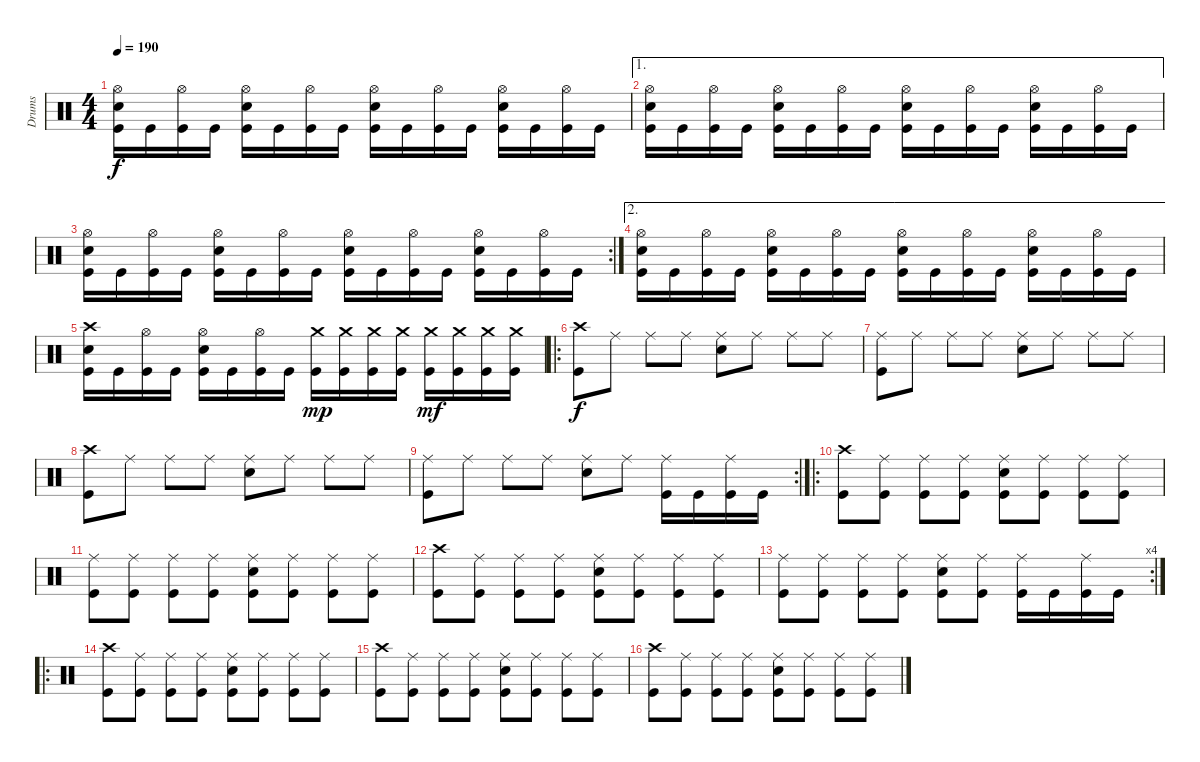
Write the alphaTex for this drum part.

\track ("Drums" "Drums") {instrument percussion}
\staff {score}
\articulation defaults
\ts (4 4)
\tempo 190
\clef neutral
\ks c
("Hi-Hat (open)" "Electric Snare (hit)" "Kick (hit)").16{dy f} "Kick (hit)".16 ("Hi-Hat (open)" "Kick (hit)").16 "Kick (hit)".16 ("Hi-Hat (open)" "Electric Snare (hit)" "Kick (hit)").16 "Kick (hit)".16 ("Hi-Hat (open)" "Kick (hit)").16 "Kick (hit)".16 ("Hi-Hat (open)" "Electric Snare (hit)" "Kick (hit)").16 "Kick (hit)".16 ("Hi-Hat (open)" "Kick (hit)").16 "Kick (hit)".16 ("Hi-Hat (open)" "Electric Snare (hit)" "Kick (hit)").16 "Kick (hit)".16 ("Hi-Hat (open)" "Kick (hit)").16 "Kick (hit)".16 |
\ae 1
("Hi-Hat (open)" "Electric Snare (hit)" "Kick (hit)").16 "Kick (hit)".16 ("Hi-Hat (open)" "Kick (hit)").16 "Kick (hit)".16 ("Hi-Hat (open)" "Electric Snare (hit)" "Kick (hit)").16 "Kick (hit)".16 ("Hi-Hat (open)" "Kick (hit)").16 "Kick (hit)".16 ("Hi-Hat (open)" "Electric Snare (hit)" "Kick (hit)").16 "Kick (hit)".16 ("Hi-Hat (open)" "Kick (hit)").16 "Kick (hit)".16 ("Hi-Hat (open)" "Electric Snare (hit)" "Kick (hit)").16 "Kick (hit)".16 ("Hi-Hat (open)" "Kick (hit)").16 "Kick (hit)".16 |
\rc 2
("Hi-Hat (open)" "Electric Snare (hit)" "Kick (hit)").16 "Kick (hit)".16 ("Hi-Hat (open)" "Kick (hit)").16 "Kick (hit)".16 ("Hi-Hat (open)" "Electric Snare (hit)" "Kick (hit)").16 "Kick (hit)".16 ("Hi-Hat (open)" "Kick (hit)").16 "Kick (hit)".16 ("Hi-Hat (open)" "Electric Snare (hit)" "Kick (hit)").16 "Kick (hit)".16 ("Hi-Hat (open)" "Kick (hit)").16 "Kick (hit)".16 ("Hi-Hat (open)" "Electric Snare (hit)" "Kick (hit)").16 "Kick (hit)".16 ("Hi-Hat (open)" "Kick (hit)").16 "Kick (hit)".16 |
\ae 2
("Hi-Hat (open)" "Electric Snare (hit)" "Kick (hit)").16 "Kick (hit)".16 ("Hi-Hat (open)" "Kick (hit)").16 "Kick (hit)".16 ("Hi-Hat (open)" "Electric Snare (hit)" "Kick (hit)").16 "Kick (hit)".16 ("Hi-Hat (open)" "Kick (hit)").16 "Kick (hit)".16 ("Hi-Hat (open)" "Electric Snare (hit)" "Kick (hit)").16 "Kick (hit)".16 ("Hi-Hat (open)" "Kick (hit)").16 "Kick (hit)".16 ("Hi-Hat (open)" "Electric Snare (hit)" "Kick (hit)").16 "Kick (hit)".16 ("Hi-Hat (open)" "Kick (hit)").16 "Kick (hit)".16 |
("Crash high (hit)" "Electric Snare (hit)" "Kick (hit)").16 "Kick (hit)".16 ("Hi-Hat (open)" "Kick (hit)").16 "Kick (hit)".16 ("Hi-Hat (open)" "Electric Snare (hit)" "Kick (hit)").16 "Kick (hit)".16 ("Hi-Hat (open)" "Kick (hit)").16 "Kick (hit)".16 ("Crash medium (hit)" "Kick (hit)").16{dy mp} ("Crash medium (hit)" "Kick (hit)").16 ("Crash medium (hit)" "Kick (hit)").16 ("Crash medium (hit)" "Kick (hit)").16 ("Crash medium (hit)" "Kick (hit)").16{dy mf} ("Crash medium (hit)" "Kick (hit)").16 ("Crash medium (hit)" "Kick (hit)").16 ("Crash medium (hit)" "Kick (hit)").16 |
\ro
("Crash high (hit)" "Kick (hit)").8{dy f} "Ride (middle)".8 "Ride (middle)".8 "Ride (middle)".8 ("Ride (middle)" "Electric Snare (hit)").8 "Ride (middle)".8 "Ride (middle)".8 "Ride (middle)".8 |
("Ride (middle)" "Kick (hit)").8 "Ride (middle)".8 "Ride (middle)".8 "Ride (middle)".8 ("Ride (middle)" "Electric Snare (hit)").8 "Ride (middle)".8 "Ride (middle)".8 "Ride (middle)".8 |
("Crash high (hit)" "Kick (hit)").8 "Ride (middle)".8 "Ride (middle)".8 "Ride (middle)".8 ("Ride (middle)" "Electric Snare (hit)").8 "Ride (middle)".8 "Ride (middle)".8 "Ride (middle)".8 |
\rc 2
("Ride (middle)" "Kick (hit)").8 "Ride (middle)".8 "Ride (middle)".8 "Ride (middle)".8 ("Ride (middle)" "Electric Snare (hit)").8 "Ride (middle)".8 ("Ride (middle)" "Kick (hit)").16 "Kick (hit)".16 ("Ride (middle)" "Kick (hit)").16 "Kick (hit)".16 |
\ro
("Crash high (hit)" "Kick (hit)").8 ("Ride (middle)" "Kick (hit)").8 ("Ride (middle)" "Kick (hit)").8 ("Ride (middle)" "Kick (hit)").8 ("Ride (middle)" "Electric Snare (hit)" "Kick (hit)").8 ("Ride (middle)" "Kick (hit)").8 ("Ride (middle)" "Kick (hit)").8 ("Ride (middle)" "Kick (hit)").8 |
("Ride (middle)" "Kick (hit)").8 ("Ride (middle)" "Kick (hit)").8 ("Ride (middle)" "Kick (hit)").8 ("Ride (middle)" "Kick (hit)").8 ("Ride (middle)" "Electric Snare (hit)" "Kick (hit)").8 ("Ride (middle)" "Kick (hit)").8 ("Ride (middle)" "Kick (hit)").8 ("Ride (middle)" "Kick (hit)").8 |
("Crash high (hit)" "Kick (hit)").8 ("Ride (middle)" "Kick (hit)").8 ("Ride (middle)" "Kick (hit)").8 ("Ride (middle)" "Kick (hit)").8 ("Ride (middle)" "Electric Snare (hit)" "Kick (hit)").8 ("Ride (middle)" "Kick (hit)").8 ("Ride (middle)" "Kick (hit)").8 ("Ride (middle)" "Kick (hit)").8 |
\rc 4
("Ride (middle)" "Kick (hit)").8 ("Ride (middle)" "Kick (hit)").8 ("Ride (middle)" "Kick (hit)").8 ("Ride (middle)" "Kick (hit)").8 ("Ride (middle)" "Electric Snare (hit)" "Kick (hit)").8 ("Ride (middle)" "Kick (hit)").8 ("Ride (middle)" "Kick (hit)").16 "Kick (hit)".16 ("Ride (middle)" "Kick (hit)").16 "Kick (hit)".16 |
\ro
("Crash high (hit)" "Kick (hit)").8 ("Ride (middle)" "Kick (hit)").8 ("Ride (middle)" "Kick (hit)").8 ("Ride (middle)" "Kick (hit)").8 ("Ride (middle)" "Electric Snare (hit)" "Kick (hit)").8 ("Ride (middle)" "Kick (hit)").8 ("Ride (middle)" "Kick (hit)").8 ("Ride (middle)" "Kick (hit)").8 |
("Crash high (hit)" "Kick (hit)").8 ("Ride (middle)" "Kick (hit)").8 ("Ride (middle)" "Kick (hit)").8 ("Ride (middle)" "Kick (hit)").8 ("Ride (middle)" "Electric Snare (hit)" "Kick (hit)").8 ("Ride (middle)" "Kick (hit)").8 ("Ride (middle)" "Kick (hit)").8 ("Ride (middle)" "Kick (hit)").8 |
("Crash high (hit)" "Kick (hit)").8 ("Ride (middle)" "Kick (hit)").8 ("Ride (middle)" "Kick (hit)").8 ("Ride (middle)" "Kick (hit)").8 ("Ride (middle)" "Electric Snare (hit)" "Kick (hit)").8 ("Ride (middle)" "Kick (hit)").8 ("Ride (middle)" "Kick (hit)").8 ("Ride (middle)" "Kick (hit)").8
